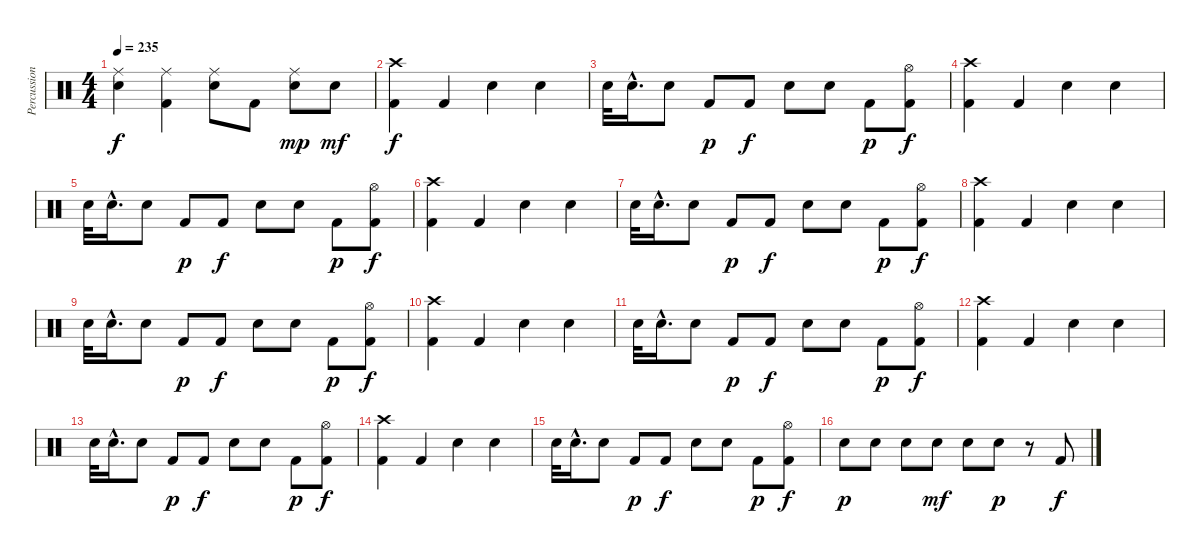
\track ("Percussions" "Percussion") {instrument percussion}
\staff {score}
\articulation defaults
\ts (4 4)
\tempo 235
\clef neutral
\ks c
("Ride (middle)" "Snare (hit) 2").4{dy f} ("Ride (middle)" "Kick (hit) 2").4 ("Ride (middle)" "Snare (hit) 2").8 "Kick (hit) 2".8 ("Ride (middle)" "Snare (hit) 2").8{dy mp} "Snare (hit) 2".8{dy mf} |
("Crash high (hit)" "Kick (hit) 2").4{dy f} "Kick (hit) 2".4 "Snare (hit) 2".4 "Snare (hit) 2".4 |
"Snare (hit) 2".32 "Snare (hit) 2"{hac}.16{d} "Snare (hit) 2".8 "Kick (hit) 2".8{dy p} "Kick (hit) 2".8{dy f} "Snare (hit) 2".8 "Snare (hit) 2".8 "Kick (hit) 2".8{dy p} ("Hi-Hat (open)" "Kick (hit) 2").8{dy f} |
("Crash high (hit)" "Kick (hit) 2").4 "Kick (hit) 2".4 "Snare (hit) 2".4 "Snare (hit) 2".4 |
"Snare (hit) 2".32 "Snare (hit) 2"{hac}.16{d} "Snare (hit) 2".8 "Kick (hit) 2".8{dy p} "Kick (hit) 2".8{dy f} "Snare (hit) 2".8 "Snare (hit) 2".8 "Kick (hit) 2".8{dy p} ("Hi-Hat (open)" "Kick (hit) 2").8{dy f} |
("Crash high (hit)" "Kick (hit) 2").4 "Kick (hit) 2".4 "Snare (hit) 2".4 "Snare (hit) 2".4 |
"Snare (hit) 2".32 "Snare (hit) 2"{hac}.16{d} "Snare (hit) 2".8 "Kick (hit) 2".8{dy p} "Kick (hit) 2".8{dy f} "Snare (hit) 2".8 "Snare (hit) 2".8 "Kick (hit) 2".8{dy p} ("Hi-Hat (open)" "Kick (hit) 2").8{dy f} |
("Crash high (hit)" "Kick (hit) 2").4 "Kick (hit) 2".4 "Snare (hit) 2".4 "Snare (hit) 2".4 |
"Snare (hit) 2".32 "Snare (hit) 2"{hac}.16{d} "Snare (hit) 2".8 "Kick (hit) 2".8{dy p} "Kick (hit) 2".8{dy f} "Snare (hit) 2".8 "Snare (hit) 2".8 "Kick (hit) 2".8{dy p} ("Hi-Hat (open)" "Kick (hit) 2").8{dy f} |
("Crash high (hit)" "Kick (hit) 2").4 "Kick (hit) 2".4 "Snare (hit) 2".4 "Snare (hit) 2".4 |
"Snare (hit) 2".32 "Snare (hit) 2"{hac}.16{d} "Snare (hit) 2".8 "Kick (hit) 2".8{dy p} "Kick (hit) 2".8{dy f} "Snare (hit) 2".8 "Snare (hit) 2".8 "Kick (hit) 2".8{dy p} ("Hi-Hat (open)" "Kick (hit) 2").8{dy f} |
("Crash high (hit)" "Kick (hit) 2").4 "Kick (hit) 2".4 "Snare (hit) 2".4 "Snare (hit) 2".4 |
"Snare (hit) 2".32 "Snare (hit) 2"{hac}.16{d} "Snare (hit) 2".8 "Kick (hit) 2".8{dy p} "Kick (hit) 2".8{dy f} "Snare (hit) 2".8 "Snare (hit) 2".8 "Kick (hit) 2".8{dy p} ("Hi-Hat (open)" "Kick (hit) 2").8{dy f} |
("Crash high (hit)" "Kick (hit) 2").4 "Kick (hit) 2".4 "Snare (hit) 2".4 "Snare (hit) 2".4 |
"Snare (hit) 2".32 "Snare (hit) 2"{hac}.16{d} "Snare (hit) 2".8 "Kick (hit) 2".8{dy p} "Kick (hit) 2".8{dy f} "Snare (hit) 2".8 "Snare (hit) 2".8 "Kick (hit) 2".8{dy p} ("Hi-Hat (open)" "Kick (hit) 2").8{dy f} |
"Snare (hit) 2".8{dy p} "Snare (hit) 2".8 "Snare (hit) 2".8 "Snare (hit) 2".8{dy mf} "Snare (hit) 2".8 "Snare (hit) 2".8{dy p} r.8 "Kick (hit) 2".8{dy f}
